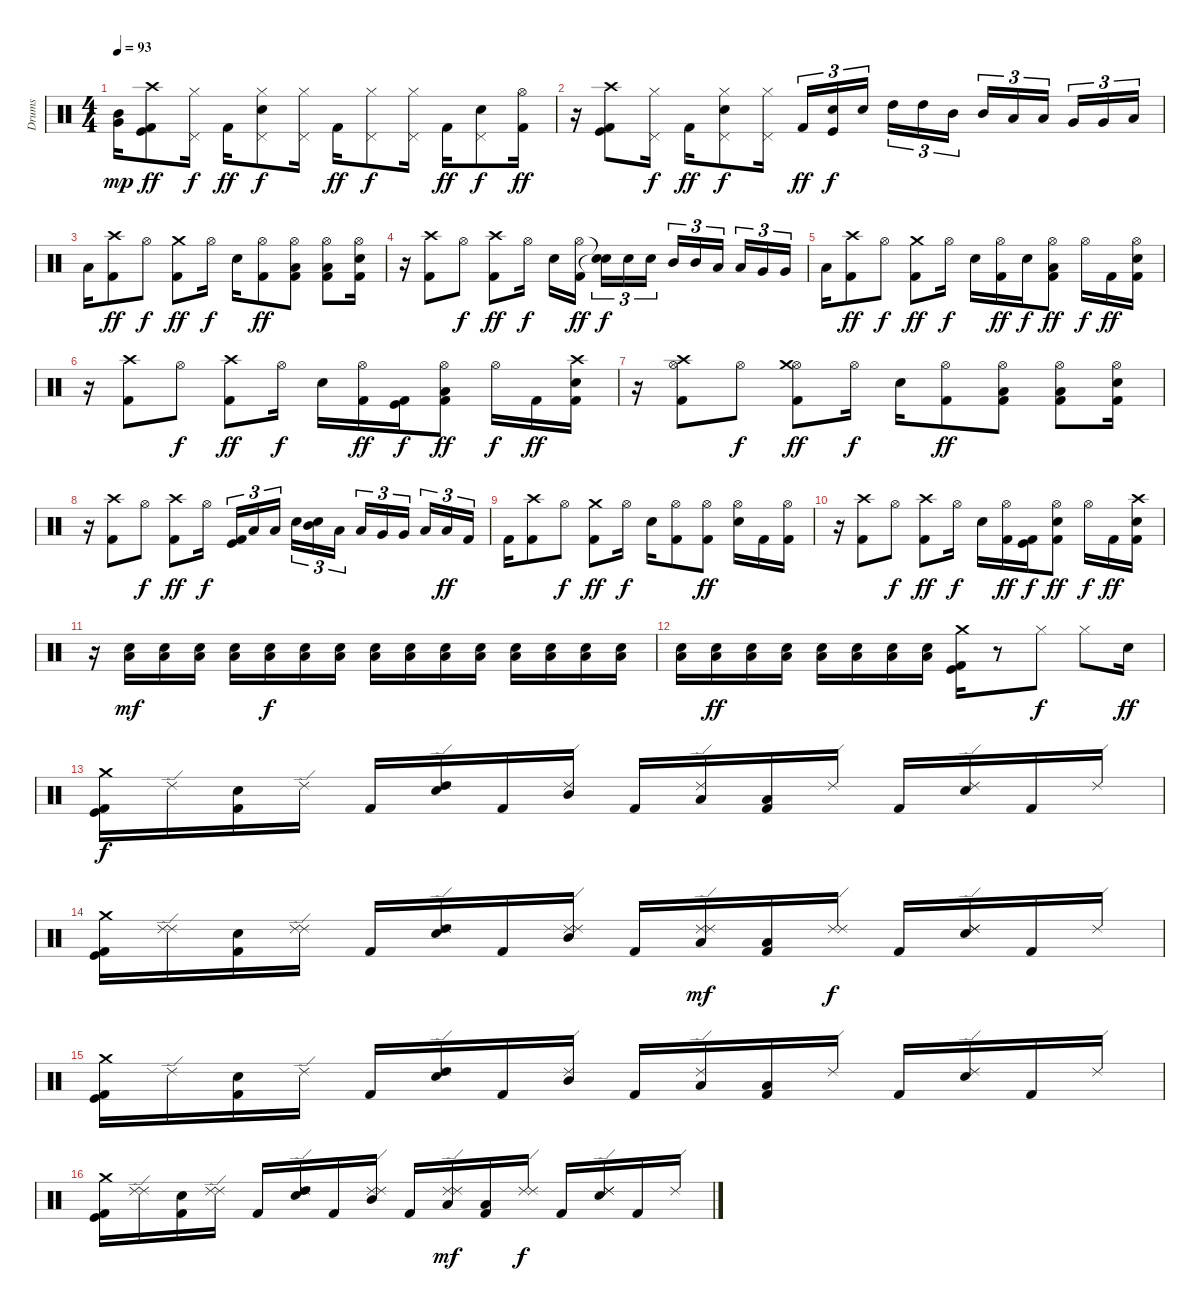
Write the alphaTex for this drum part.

\track ("Drums" "Drums") {instrument percussion}
\staff {score}
\articulation defaults
\ts (4 4)
\tempo 93
\clef neutral
\ks c
("Mid Tom (hit)" "Very Low Tom (hit)").16{dy mp} ("Kick (hit) 2" "Kick (hit)" "Crash high (hit)").8{dy ff} ("Pedal Hi-Hat (hit)" "Hi-Hat (closed)").16{dy f} "Kick (hit) 2".16{dy ff} ("Electric Snare (hit)" "Hi-Hat (closed)" "Pedal Hi-Hat (hit)").8{dy f} ("Hi-Hat (closed)" "Pedal Hi-Hat (hit)").16 "Kick (hit) 2".16{dy ff} ("Hi-Hat (closed)" "Pedal Hi-Hat (hit)").8{dy f} ("Hi-Hat (closed)" "Pedal Hi-Hat (hit)").16 "Kick (hit) 2".16{dy ff} ("Pedal Hi-Hat (hit)" "Electric Snare (hit)").8{dy f} ("Kick (hit) 2" "Hi-Hat (open)").16{dy ff} |
r.16 ("Crash high (hit)" "Kick (hit) 2" "Kick (hit)").8 ("Hi-Hat (closed)" "Pedal Hi-Hat (hit)").16{dy f} "Kick (hit) 2".16{dy ff} ("Hi-Hat (closed)" "Pedal Hi-Hat (hit)" "Electric Snare (hit)").8{dy f} ("Hi-Hat (closed)" "Pedal Hi-Hat (hit)").16 "Kick (hit) 2".16{tu (3 2) dy ff} ("Kick (hit)" "Electric Snare (hit)").16{tu (3 2) dy f} "Electric Snare (hit)".16{tu (3 2)} "High Tom (hit)".16{tu (3 2)} "High Tom (hit)".16{tu (3 2)} "Mid Tom (hit)".16{tu (3 2)} "Mid Tom (hit)".16{tu (3 2)} "Low Tom (hit)".16{tu (3 2)} "Low Tom (hit)".16{tu (3 2)} "Very Low Tom (hit)".16{tu (3 2)} "Very Low Tom (hit)".16{tu (3 2)} "Low Floor Tom (hit)".16{tu (3 2)} |
"Low Floor Tom (hit)".16 ("Crash high (hit)" "Kick (hit) 2").8{dy ff} "Hi-Hat (open)".8{dy f} ("Crash medium (hit)" "Kick (hit) 2").8{dy ff} "Hi-Hat (open)".16{dy f} "Electric Snare (hit)".16 ("Kick (hit) 2" "Hi-Hat (open)").8{dy ff} ("Hi-Hat (open)" "Low Tom (hit)" "Kick (hit) 2").8 ("Hi-Hat (open)" "Low Floor Tom (hit)" "Kick (hit) 2").8 ("Kick (hit) 2" "Hi-Hat (open)" "Electric Snare (hit)").16 |
r.16 ("Kick (hit) 2" "Crash high (hit)").8 "Hi-Hat (open)".8{dy f} ("Kick (hit) 2" "Crash high (hit)").8{dy ff} "Hi-Hat (open)".16{dy f} "Electric Snare (hit)".16 ("Kick (hit) 2" "Hi-Hat (open)").16{dy ff} ("Snare (hit)"{t} "Snare (hit)"{t}).16{tu (3 2) dy f} "Electric Snare (hit)".16{tu (3 2)} "Electric Snare (hit)".16{tu (3 2)} "Mid Tom (hit)".16{tu (3 2)} "Mid Tom (hit)".16{tu (3 2)} "Low Tom (hit)".16{tu (3 2)} "Low Tom (hit)".16{tu (3 2)} "Very Low Tom (hit)".16{tu (3 2)} "Very Low Tom (hit)".16{tu (3 2)} |
"Low Floor Tom (hit)".16 ("Crash high (hit)" "Kick (hit) 2").8{dy ff} "Hi-Hat (open)".8{dy f} ("Crash medium (hit)" "Kick (hit) 2").8{dy ff} "Hi-Hat (open)".16{dy f} "Electric Snare (hit)".16 ("Kick (hit) 2" "Hi-Hat (open)").16{dy ff} "Snare (hit) 2".16{dy f} ("Hi-Hat (open)" "Low Tom (hit)" "Kick (hit) 2").8{dy ff} "Hi-Hat (open)".16{dy f} "Kick (hit) 2".16{dy ff} ("Kick (hit) 2" "Hi-Hat (open)" "Electric Snare (hit)").16 |
r.16 ("Kick (hit) 2" "Crash high (hit)").8 "Hi-Hat (open)".8{dy f} ("Kick (hit) 2" "Crash high (hit)").8{dy ff} "Hi-Hat (open)".16{dy f} "Electric Snare (hit)".16 ("Kick (hit) 2" "Hi-Hat (open)").16{dy ff} ("Kick (hit)" "Kick (hit) 2").16{dy f} ("Low Floor Tom (hit)" "Kick (hit) 2" "Hi-Hat (open)").8{dy ff} "Hi-Hat (open)".16{dy f} "Kick (hit) 2".16{dy ff} ("Kick (hit) 2" "Crash high (hit)" "Electric Snare (hit)").16 |
r.16 ("Crash high (hit)" "Kick (hit) 2" "Hi-Hat (open)").8 "Hi-Hat (open)".8{dy f} ("Hi-Hat (open)" "Crash medium (hit)" "Kick (hit) 2").8{dy ff} "Hi-Hat (open)".16{dy f} "Electric Snare (hit)".16 ("Kick (hit) 2" "Hi-Hat (open)").8{dy ff} ("Hi-Hat (open)" "Low Tom (hit)" "Kick (hit) 2").8 ("Hi-Hat (open)" "Low Floor Tom (hit)" "Kick (hit) 2").8 ("Kick (hit) 2" "Hi-Hat (open)" "Electric Snare (hit)").16 |
r.16 ("Kick (hit) 2" "Crash high (hit)").8 "Hi-Hat (open)".8{dy f} ("Kick (hit) 2" "Crash high (hit)").8{dy ff} "Hi-Hat (open)".16{dy f} ("Kick (hit) 2" "Kick (hit)").16{tu (3 2)} "Low Tom (hit)".16{tu (3 2)} "Low Tom (hit)".16{tu (3 2)} "Electric Snare (hit)".16{tu (3 2)} ("Electric Snare (hit)" "Mid Tom (hit)").16{tu (3 2)} "Low Tom (hit)".16{tu (3 2)} "Low Tom (hit)".16{tu (3 2)} "Very Low Tom (hit)".16{tu (3 2)} "Very Low Tom (hit)".16{tu (3 2)} "Low Floor Tom (hit)".16{tu (3 2)} "Low Floor Tom (hit)".16{tu (3 2) dy ff} "Kick (hit) 2".16{tu (3 2)} |
"Kick (hit) 2".16 ("Crash high (hit)" "Kick (hit) 2").8 "Hi-Hat (open)".8{dy f} ("Crash medium (hit)" "Kick (hit) 2").8{dy ff} "Hi-Hat (open)".16{dy f} "Electric Snare (hit)".16 ("Hi-Hat (open)" "Kick (hit) 2").8 ("Hi-Hat (open)" "Kick (hit) 2").8{dy ff} ("Hi-Hat (open)" "Electric Snare (hit)").16 "Kick (hit) 2".16 ("Kick (hit) 2" "Hi-Hat (open)").16 |
r.16 ("Kick (hit) 2" "Crash high (hit)").8 "Hi-Hat (open)".8{dy f} ("Kick (hit) 2" "Crash high (hit)").8{dy ff} "Hi-Hat (open)".16{dy f} "Electric Snare (hit)".16 ("Kick (hit) 2" "Hi-Hat (open)").16{dy ff} ("Kick (hit)" "Kick (hit) 2").16{dy f} ("Electric Snare (hit)" "Kick (hit) 2" "Hi-Hat (open)").8{dy ff} "Hi-Hat (open)".16{dy f} "Kick (hit) 2".16{dy ff} ("Kick (hit) 2" "Crash high (hit)" "Electric Snare (hit)").16 |
r.16 ("Electric Snare (hit)" "Low Tom (hit)").16{dy mf} ("Electric Snare (hit)" "Low Tom (hit)").16 ("Electric Snare (hit)" "Low Tom (hit)").16 ("Electric Snare (hit)" "Low Tom (hit)").16 ("Electric Snare (hit)" "Low Tom (hit)").16{dy f} ("Electric Snare (hit)" "Low Tom (hit)").16 ("Electric Snare (hit)" "Low Tom (hit)").16 ("Electric Snare (hit)" "Low Tom (hit)").16 ("Electric Snare (hit)" "Low Tom (hit)").16 ("Electric Snare (hit)" "Low Tom (hit)").16 ("Electric Snare (hit)" "Low Tom (hit)").16 ("Electric Snare (hit)" "Low Tom (hit)").16 ("Electric Snare (hit)" "Low Tom (hit)").16 ("Electric Snare (hit)" "Low Tom (hit)").16 ("Electric Snare (hit)" "Low Tom (hit)").16 |
("Electric Snare (hit)" "Low Tom (hit)").16 ("Electric Snare (hit)" "Low Tom (hit)").16{dy ff} ("Electric Snare (hit)" "Low Tom (hit)").16 ("Electric Snare (hit)" "Low Tom (hit)").16 ("Electric Snare (hit)" "Low Tom (hit)").16 ("Electric Snare (hit)" "Low Tom (hit)").16 ("Electric Snare (hit)" "Low Tom (hit)").16 ("Electric Snare (hit)" "Low Tom (hit)").16 ("Kick (hit) 2" "Crash medium (hit)" "Kick (hit)").16 r.8 "Hi-Hat (closed)".8{dy f} "Hi-Hat (closed)".8 "Electric Snare (hit)".16{dy ff} |
("Kick (hit)" "Kick (hit) 2" "Crash medium (hit)").16{dy f} "Ride (edge) 2".16 ("Electric Snare (hit)" "Kick (hit) 2").16 "Ride (edge) 2".16 "Kick (hit) 2".16 ("Ride (edge) 2" "High Tom (hit)" "Electric Snare (hit)").16 "Kick (hit) 2".16 ("Ride (edge) 2" "Mid Tom (hit)").16 "Kick (hit) 2".16 ("Low Tom (hit)" "Ride (edge) 2").16 ("Kick (hit) 2" "Low Tom (hit)").16 "Ride (edge) 2".16 "Kick (hit) 2".16 ("Electric Snare (hit)" "Ride (edge) 2").16 "Kick (hit) 2".16 "Ride (edge) 2".16 |
("Kick (hit)" "Kick (hit) 2" "Crash medium (hit)").16 ("Ride (edge) 2" "Ride (edge) 2").16 ("Electric Snare (hit)" "Kick (hit) 2").16 ("Ride (edge) 2" "Ride (edge) 2").16 "Kick (hit) 2".16 ("Ride (edge) 2" "Ride (edge) 2" "High Tom (hit)" "Electric Snare (hit)").16 "Kick (hit) 2".16 ("Ride (edge) 2" "Ride (edge) 2" "Mid Tom (hit)").16 "Kick (hit) 2".16 ("Low Tom (hit)" "Ride (edge) 2" "Ride (edge) 2").16{dy mf} ("Low Tom (hit)" "Kick (hit) 2").16 ("Ride (edge) 2" "Ride (edge) 2").16{dy f} "Kick (hit) 2".16 ("Ride (edge) 2" "Electric Snare (hit)" "Ride (edge) 2").16 "Kick (hit) 2".16 "Ride (edge) 2".16 |
("Kick (hit)" "Kick (hit) 2" "Crash medium (hit)").16 "Ride (edge) 2".16 ("Electric Snare (hit)" "Kick (hit) 2").16 "Ride (edge) 2".16 "Kick (hit) 2".16 ("Ride (edge) 2" "High Tom (hit)" "Electric Snare (hit)").16 "Kick (hit) 2".16 ("Ride (edge) 2" "Mid Tom (hit)").16 "Kick (hit) 2".16 ("Low Tom (hit)" "Ride (edge) 2").16 ("Kick (hit) 2" "Low Tom (hit)").16 "Ride (edge) 2".16 "Kick (hit) 2".16 ("Electric Snare (hit)" "Ride (edge) 2").16 "Kick (hit) 2".16 "Ride (edge) 2".16 |
("Kick (hit)" "Kick (hit) 2" "Crash medium (hit)").16 ("Ride (edge) 2" "Ride (edge) 2").16 ("Electric Snare (hit)" "Kick (hit) 2").16 ("Ride (edge) 2" "Ride (edge) 2").16 "Kick (hit) 2".16 ("Ride (edge) 2" "Ride (edge) 2" "High Tom (hit)" "Electric Snare (hit)").16 "Kick (hit) 2".16 ("Ride (edge) 2" "Ride (edge) 2" "Mid Tom (hit)").16 "Kick (hit) 2".16 ("Low Tom (hit)" "Ride (edge) 2" "Ride (edge) 2").16{dy mf} ("Low Tom (hit)" "Kick (hit) 2").16 ("Ride (edge) 2" "Ride (edge) 2").16{dy f} "Kick (hit) 2".16 ("Ride (edge) 2" "Electric Snare (hit)" "Ride (edge) 2").16 "Kick (hit) 2".16 "Ride (edge) 2".16
